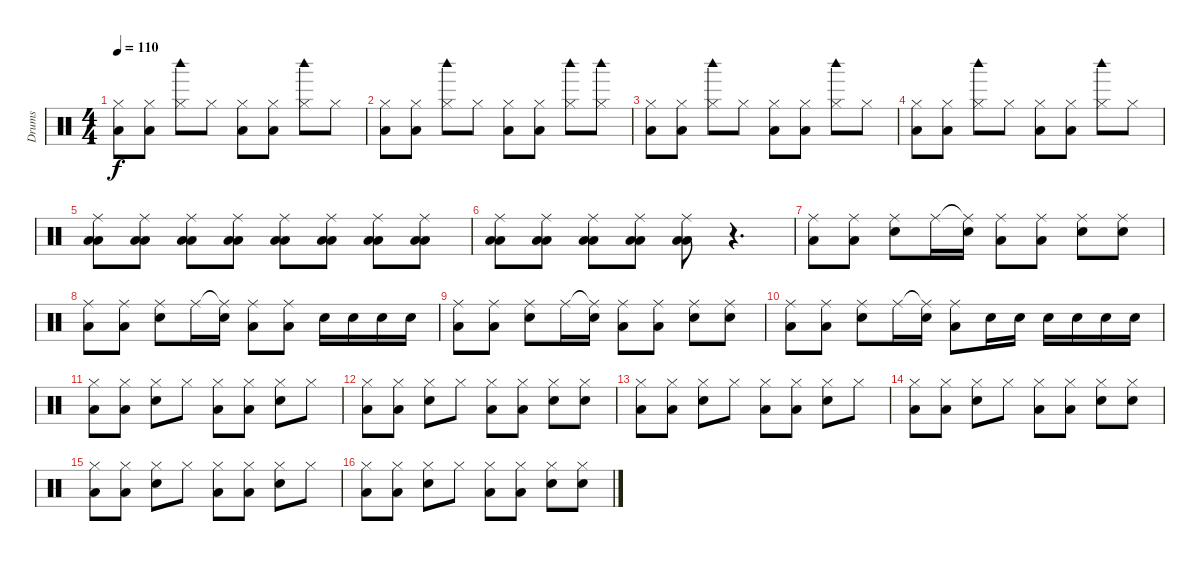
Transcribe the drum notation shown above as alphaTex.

\track ("Drums" "Drums") {instrument percussion}
\staff {score}
\articulation defaults
\ts (4 4)
\tempo 110
\clef neutral
\ks c
("Hi-Hat (closed)" "Low Floor Tom (hit)").8{dy f} ("Hi-Hat (closed)" "Low Floor Tom (hit)").8 ("Hi-Hat (closed)" "Woodblock high (hit)").8 "Hi-Hat (closed)".8 ("Hi-Hat (closed)" "Low Floor Tom (hit)").8 ("Hi-Hat (closed)" "Low Floor Tom (hit)").8 ("Hi-Hat (closed)" "Woodblock high (hit)").8 "Hi-Hat (closed)".8 |
("Hi-Hat (closed)" "Low Floor Tom (hit)").8 ("Hi-Hat (closed)" "Low Floor Tom (hit)").8 ("Hi-Hat (closed)" "Woodblock high (hit)").8 "Hi-Hat (closed)".8 ("Hi-Hat (closed)" "Low Floor Tom (hit)").8 ("Hi-Hat (closed)" "Low Floor Tom (hit)").8 ("Hi-Hat (closed)" "Woodblock high (hit)").8 ("Hi-Hat (closed)" "Woodblock high (hit)").8 |
("Hi-Hat (closed)" "Low Floor Tom (hit)").8 ("Hi-Hat (closed)" "Low Floor Tom (hit)").8 ("Hi-Hat (closed)" "Woodblock high (hit)").8 "Hi-Hat (closed)".8 ("Hi-Hat (closed)" "Low Floor Tom (hit)").8 ("Hi-Hat (closed)" "Low Floor Tom (hit)").8 ("Hi-Hat (closed)" "Woodblock high (hit)").8 "Hi-Hat (closed)".8 |
("Hi-Hat (closed)" "Low Floor Tom (hit)").8 ("Hi-Hat (closed)" "Low Floor Tom (hit)").8 ("Hi-Hat (closed)" "Woodblock high (hit)").8 "Hi-Hat (closed)".8 ("Hi-Hat (closed)" "Low Floor Tom (hit)").8 ("Hi-Hat (closed)" "Low Floor Tom (hit)").8 ("Hi-Hat (closed)" "Woodblock high (hit)").8 "Hi-Hat (closed)".8 |
("Low Floor Tom (hit)" "Low Tom (hit)" "Ride (middle)").8 ("Low Floor Tom (hit)" "Low Tom (hit)" "Ride (middle)").8 ("Low Floor Tom (hit)" "Low Tom (hit)" "Ride (middle)").8 ("Low Floor Tom (hit)" "Low Tom (hit)" "Ride (middle)").8 ("Low Floor Tom (hit)" "Low Tom (hit)" "Ride (middle)").8 ("Low Floor Tom (hit)" "Low Tom (hit)" "Ride (middle)").8 ("Low Floor Tom (hit)" "Low Tom (hit)" "Ride (middle)").8 ("Low Floor Tom (hit)" "Low Tom (hit)" "Ride (middle)").8 |
("Low Floor Tom (hit)" "Low Tom (hit)" "Ride (middle)").8 ("Low Floor Tom (hit)" "Low Tom (hit)" "Ride (middle)").8 ("Low Floor Tom (hit)" "Low Tom (hit)" "Ride (middle)").8 ("Low Floor Tom (hit)" "Low Tom (hit)" "Ride (middle)").8 ("Low Floor Tom (hit)" "Low Tom (hit)" "Ride (middle)").8 r.4{d} |
("Ride (middle)" "Low Floor Tom (hit)").8 ("Ride (middle)" "Low Floor Tom (hit)").8 ("Ride (middle)" "Snare (hit) 2").8 "Ride (middle)".16 ("Ride (middle)"{t} "Snare (hit) 2").16 ("Ride (middle)" "Low Floor Tom (hit)").8 ("Ride (middle)" "Low Floor Tom (hit)").8 ("Ride (middle)" "Snare (hit) 2").8 ("Ride (middle)" "Snare (hit) 2").8 |
("Ride (middle)" "Low Floor Tom (hit)").8 ("Ride (middle)" "Low Floor Tom (hit)").8 ("Ride (middle)" "Snare (hit) 2").8 "Ride (middle)".16 ("Ride (middle)"{t} "Snare (hit) 2").16 ("Ride (middle)" "Low Floor Tom (hit)").8 ("Ride (middle)" "Low Floor Tom (hit)").8 "Snare (hit) 2".16 "Snare (hit) 2".16 "Snare (hit) 2".16 "Snare (hit) 2".16 |
("Ride (middle)" "Low Floor Tom (hit)").8 ("Ride (middle)" "Low Floor Tom (hit)").8 ("Ride (middle)" "Snare (hit) 2").8 "Ride (middle)".16 ("Ride (middle)"{t} "Snare (hit) 2").16 ("Ride (middle)" "Low Floor Tom (hit)").8 ("Ride (middle)" "Low Floor Tom (hit)").8 ("Ride (middle)" "Snare (hit) 2").8 ("Ride (middle)" "Snare (hit) 2").8 |
("Ride (middle)" "Low Floor Tom (hit)").8 ("Ride (middle)" "Low Floor Tom (hit)").8 ("Ride (middle)" "Snare (hit) 2").8 "Ride (middle)".16 ("Ride (middle)"{t} "Snare (hit) 2").16 ("Ride (middle)" "Low Floor Tom (hit)").8 "Snare (hit) 2".16 "Snare (hit) 2".16 "Snare (hit) 2".16 "Snare (hit) 2".16 "Snare (hit) 2".16 "Snare (hit) 2".16 |
("Hi-Hat (closed)" "Low Floor Tom (hit)").8 ("Hi-Hat (closed)" "Low Floor Tom (hit)").8 ("Hi-Hat (closed)" "Snare (hit) 2").8 "Hi-Hat (closed)".8 ("Hi-Hat (closed)" "Low Floor Tom (hit)").8 ("Hi-Hat (closed)" "Low Floor Tom (hit)").8 ("Hi-Hat (closed)" "Snare (hit) 2").8 "Hi-Hat (closed)".8 |
("Hi-Hat (closed)" "Low Floor Tom (hit)").8 ("Hi-Hat (closed)" "Low Floor Tom (hit)").8 ("Hi-Hat (closed)" "Snare (hit) 2").8 "Hi-Hat (closed)".8 ("Hi-Hat (closed)" "Low Floor Tom (hit)").8 ("Hi-Hat (closed)" "Low Floor Tom (hit)").8 ("Hi-Hat (closed)" "Snare (hit) 2").8 ("Hi-Hat (closed)" "Snare (hit) 2").8 |
("Hi-Hat (closed)" "Low Floor Tom (hit)").8 ("Hi-Hat (closed)" "Low Floor Tom (hit)").8 ("Hi-Hat (closed)" "Snare (hit) 2").8 "Hi-Hat (closed)".8 ("Hi-Hat (closed)" "Low Floor Tom (hit)").8 ("Hi-Hat (closed)" "Low Floor Tom (hit)").8 ("Hi-Hat (closed)" "Snare (hit) 2").8 "Hi-Hat (closed)".8 |
("Hi-Hat (closed)" "Low Floor Tom (hit)").8 ("Hi-Hat (closed)" "Low Floor Tom (hit)").8 ("Hi-Hat (closed)" "Snare (hit) 2").8 "Hi-Hat (closed)".8 ("Hi-Hat (closed)" "Low Floor Tom (hit)").8 ("Hi-Hat (closed)" "Low Floor Tom (hit)").8 ("Hi-Hat (closed)" "Snare (hit) 2").8 ("Hi-Hat (closed)" "Snare (hit) 2").8 |
("Hi-Hat (closed)" "Low Floor Tom (hit)").8 ("Hi-Hat (closed)" "Low Floor Tom (hit)").8 ("Hi-Hat (closed)" "Snare (hit) 2").8 "Hi-Hat (closed)".8 ("Hi-Hat (closed)" "Low Floor Tom (hit)").8 ("Hi-Hat (closed)" "Low Floor Tom (hit)").8 ("Hi-Hat (closed)" "Snare (hit) 2").8 "Hi-Hat (closed)".8 |
("Hi-Hat (closed)" "Low Floor Tom (hit)").8 ("Hi-Hat (closed)" "Low Floor Tom (hit)").8 ("Hi-Hat (closed)" "Snare (hit) 2").8 "Hi-Hat (closed)".8 ("Hi-Hat (closed)" "Low Floor Tom (hit)").8 ("Hi-Hat (closed)" "Low Floor Tom (hit)").8 ("Hi-Hat (closed)" "Snare (hit) 2").8 ("Hi-Hat (closed)" "Snare (hit) 2").8
